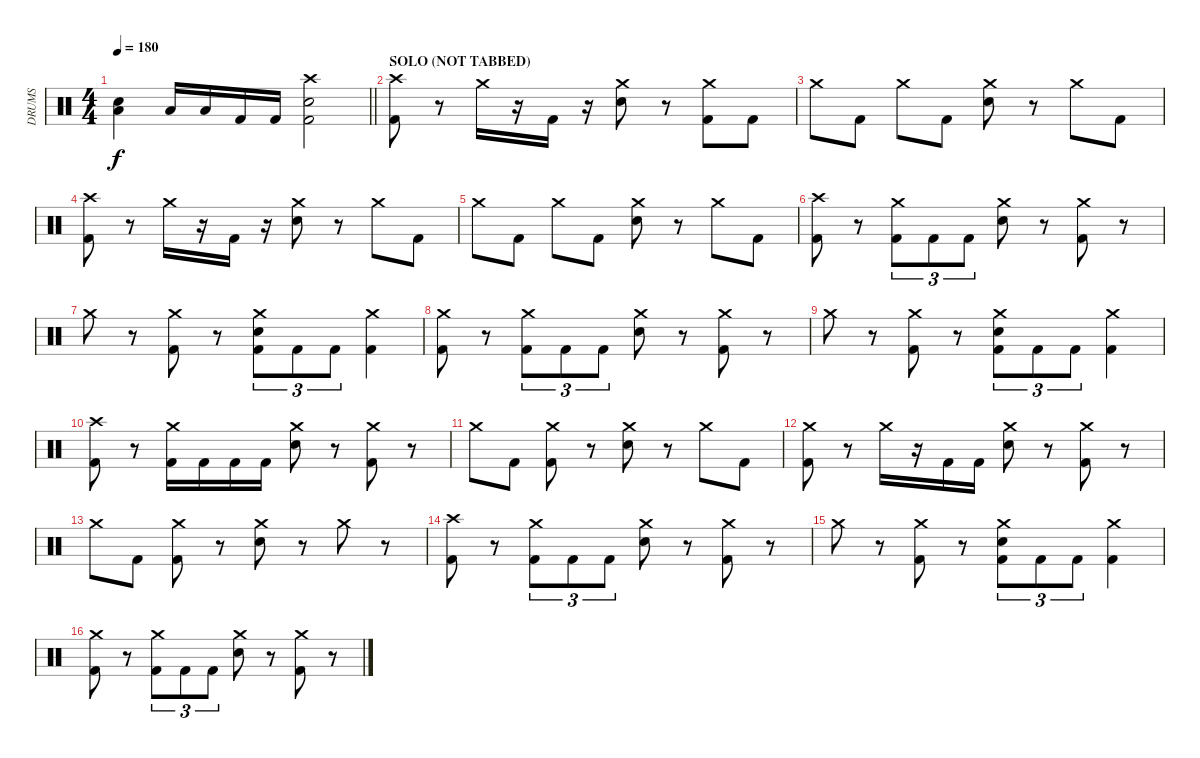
\track ("DRUMS" "DRUMS") {instrument percussion}
\staff {score}
\articulation defaults
\ts (4 4)
\tempo 180
\clef neutral
\barLineRight lightlight
\ks c
("Electric Snare (hit)" "Low Floor Tom (hit)").4{dy f} "Low Tom (hit)".16 "Low Tom (hit)".16 "Kick (hit) 2".16 "Kick (hit) 2".16 ("Crash high (hit)" "Electric Snare (hit)" "Kick (hit) 2").2 |
\section ("" "SOLO (NOT TABBED)")
("Crash high (hit)" "Kick (hit) 2").8 r.8 "Crash medium (hit)".16 r.16 "Kick (hit) 2".16 r.16 ("Crash medium (hit)" "Electric Snare (hit)").8 r.8 ("Crash medium (hit)" "Kick (hit) 2").8 "Kick (hit) 2".8 |
"Crash medium (hit)".8 "Kick (hit) 2".8 "Crash medium (hit)".8 "Kick (hit) 2".8 ("Crash medium (hit)" "Electric Snare (hit)").8 r.8 "Crash medium (hit)".8 "Kick (hit) 2".8 |
("Crash high (hit)" "Kick (hit) 2").8 r.8 "Crash medium (hit)".16 r.16 "Kick (hit) 2".16 r.16 ("Crash medium (hit)" "Electric Snare (hit)").8 r.8 "Crash medium (hit)".8 "Kick (hit) 2".8 |
"Crash medium (hit)".8 "Kick (hit) 2".8 "Crash medium (hit)".8 "Kick (hit) 2".8 ("Crash medium (hit)" "Electric Snare (hit)").8 r.8 "Crash medium (hit)".8 "Kick (hit) 2".8 |
("Crash high (hit)" "Kick (hit) 2").8 r.8 ("Crash medium (hit)" "Kick (hit) 2").8{tu (3 2)} "Kick (hit) 2".8{tu (3 2)} "Kick (hit) 2".8{tu (3 2)} ("Crash medium (hit)" "Electric Snare (hit)").8 r.8 ("Crash medium (hit)" "Kick (hit) 2").8 r.8 |
"Crash medium (hit)".8 r.8 ("Crash medium (hit)" "Kick (hit) 2").8 r.8 ("Crash medium (hit)" "Electric Snare (hit)" "Kick (hit) 2").8{tu (3 2)} "Kick (hit) 2".8{tu (3 2)} "Kick (hit) 2".8{tu (3 2)} ("Crash medium (hit)" "Kick (hit) 2").4 |
("Crash medium (hit)" "Kick (hit) 2").8 r.8 ("Crash medium (hit)" "Kick (hit) 2").8{tu (3 2)} "Kick (hit) 2".8{tu (3 2)} "Kick (hit) 2".8{tu (3 2)} ("Crash medium (hit)" "Electric Snare (hit)").8 r.8 ("Crash medium (hit)" "Kick (hit) 2").8 r.8 |
"Crash medium (hit)".8 r.8 ("Crash medium (hit)" "Kick (hit) 2").8 r.8 ("Crash medium (hit)" "Electric Snare (hit)" "Kick (hit) 2").8{tu (3 2)} "Kick (hit) 2".8{tu (3 2)} "Kick (hit) 2".8{tu (3 2)} ("Crash medium (hit)" "Kick (hit) 2").4 |
("Crash high (hit)" "Kick (hit) 2").8 r.8 ("Crash medium (hit)" "Kick (hit) 2").16 "Kick (hit) 2".16 "Kick (hit) 2".16 "Kick (hit) 2".16 ("Crash medium (hit)" "Electric Snare (hit)").8 r.8 ("Crash medium (hit)" "Kick (hit) 2").8 r.8 |
"Crash medium (hit)".8 "Kick (hit) 2".8 ("Crash medium (hit)" "Kick (hit) 2").8 r.8 ("Crash medium (hit)" "Electric Snare (hit)").8 r.8 "Crash medium (hit)".8 "Kick (hit) 2".8 |
("Crash medium (hit)" "Kick (hit) 2").8 r.8 "Crash medium (hit)".16 r.16 "Kick (hit) 2".16 "Kick (hit) 2".16 ("Crash medium (hit)" "Electric Snare (hit)").8 r.8 ("Crash medium (hit)" "Kick (hit) 2").8 r.8 |
"Crash medium (hit)".8 "Kick (hit) 2".8 ("Crash medium (hit)" "Kick (hit) 2").8 r.8 ("Crash medium (hit)" "Electric Snare (hit)").8 r.8 "Crash medium (hit)".8 r.8 |
("Crash high (hit)" "Kick (hit) 2").8 r.8 ("Crash medium (hit)" "Kick (hit) 2").8{tu (3 2)} "Kick (hit) 2".8{tu (3 2)} "Kick (hit) 2".8{tu (3 2)} ("Crash medium (hit)" "Electric Snare (hit)").8 r.8 ("Crash medium (hit)" "Kick (hit) 2").8 r.8 |
"Crash medium (hit)".8 r.8 ("Crash medium (hit)" "Kick (hit) 2").8 r.8 ("Crash medium (hit)" "Electric Snare (hit)" "Kick (hit) 2").8{tu (3 2)} "Kick (hit) 2".8{tu (3 2)} "Kick (hit) 2".8{tu (3 2)} ("Crash medium (hit)" "Kick (hit) 2").4 |
("Crash medium (hit)" "Kick (hit) 2").8 r.8 ("Crash medium (hit)" "Kick (hit) 2").8{tu (3 2)} "Kick (hit) 2".8{tu (3 2)} "Kick (hit) 2".8{tu (3 2)} ("Crash medium (hit)" "Electric Snare (hit)").8 r.8 ("Crash medium (hit)" "Kick (hit) 2").8 r.8
